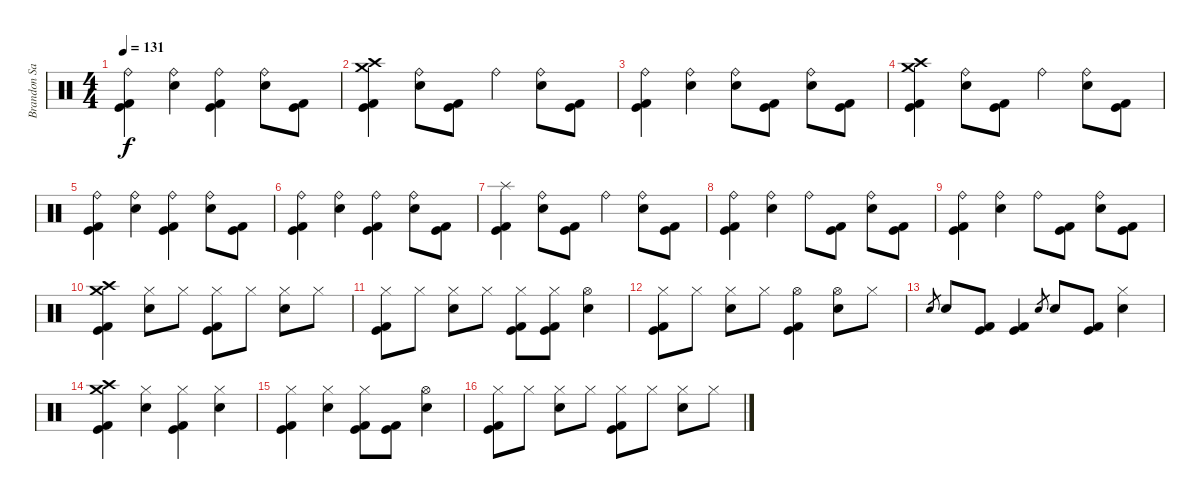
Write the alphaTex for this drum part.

\track ("Brandon Saller" "Brandon Sa") {instrument percussion}
\staff {score}
\articulation defaults
\ts (4 4)
\tempo 131
\clef neutral
\ks c
("Ride (bell)" "Kick (hit) 2" "Kick (hit)").4{dy f} ("Ride (bell)" "Electric Snare (hit)").4 ("Ride (bell)" "Kick (hit) 2" "Kick (hit)").4 ("Ride (bell)" "Electric Snare (hit)").8 ("Kick (hit) 2" "Kick (hit)").8 |
("Crash medium (hit)" "Crash high (hit)" "Kick (hit) 2" "Kick (hit)").4 ("Ride (bell)" "Electric Snare (hit)").8 ("Kick (hit) 2" "Kick (hit)").8 "Ride (bell)".4 ("Ride (bell)" "Electric Snare (hit)").8 ("Kick (hit) 2" "Kick (hit)").8 |
("Ride (bell)" "Kick (hit) 2" "Kick (hit)").4 ("Ride (bell)" "Electric Snare (hit)").4 ("Ride (bell)" "Electric Snare (hit)").8 ("Kick (hit) 2" "Kick (hit)").8 ("Ride (bell)" "Electric Snare (hit)").8 ("Kick (hit) 2" "Kick (hit)").8 |
("Crash medium (hit)" "Crash high (hit)" "Kick (hit) 2" "Kick (hit)").4 ("Ride (bell)" "Electric Snare (hit)").8 ("Kick (hit) 2" "Kick (hit)").8 "Ride (bell)".4 ("Ride (bell)" "Electric Snare (hit)").8 ("Kick (hit) 2" "Kick (hit)").8 |
("Ride (bell)" "Kick (hit) 2" "Kick (hit)").4 ("Ride (bell)" "Electric Snare (hit)").4 ("Ride (bell)" "Kick (hit) 2" "Kick (hit)").4 ("Ride (bell)" "Electric Snare (hit)").8 ("Kick (hit) 2" "Kick (hit)").8 |
("Ride (bell)" "Kick (hit) 2" "Kick (hit)").4 ("Ride (bell)" "Electric Snare (hit)").4 ("Ride (bell)" "Kick (hit) 2" "Kick (hit)").4 ("Ride (bell)" "Electric Snare (hit)").8 ("Kick (hit) 2" "Kick (hit)").8 |
("Splash (hit)" "Kick (hit) 2" "Kick (hit)").4 ("Ride (bell)" "Electric Snare (hit)").8 ("Kick (hit) 2" "Kick (hit)").8 "Ride (bell)".4 ("Ride (bell)" "Electric Snare (hit)").8 ("Kick (hit) 2" "Kick (hit)").8 |
("Ride (bell)" "Kick (hit) 2" "Kick (hit)").4 ("Ride (bell)" "Electric Snare (hit)").4 "Ride (bell)".8 ("Kick (hit) 2" "Kick (hit)").8 ("Ride (bell)" "Electric Snare (hit)").8 ("Kick (hit) 2" "Kick (hit)").8 |
("Ride (bell)" "Kick (hit) 2" "Kick (hit)").4 ("Ride (bell)" "Electric Snare (hit)").4 "Ride (bell)".8 ("Kick (hit) 2" "Kick (hit)").8 ("Ride (bell)" "Electric Snare (hit)").8 ("Kick (hit) 2" "Kick (hit)").8 |
("Crash medium (hit)" "Crash high (hit)" "Kick (hit) 2" "Kick (hit)").4 ("Hi-Hat (closed)" "Electric Snare (hit)").8 "Hi-Hat (closed)".8 ("Hi-Hat (closed)" "Kick (hit)" "Kick (hit) 2").8 "Hi-Hat (closed)".8 ("Hi-Hat (closed)" "Electric Snare (hit)").8 "Hi-Hat (closed)".8 |
("Hi-Hat (closed)" "Kick (hit) 2" "Kick (hit)").8 "Hi-Hat (closed)".8 ("Hi-Hat (closed)" "Electric Snare (hit)").8 "Hi-Hat (closed)".8 ("Hi-Hat (closed)" "Kick (hit) 2" "Kick (hit)").8 ("Hi-Hat (closed)" "Kick (hit) 2" "Kick (hit)").8 ("Hi-Hat (open)" "Electric Snare (hit)").4 |
("Hi-Hat (closed)" "Kick (hit) 2" "Kick (hit)").8 "Hi-Hat (closed)".8 ("Hi-Hat (closed)" "Electric Snare (hit)").8 "Hi-Hat (closed)".8 ("Hi-Hat (open)" "Kick (hit) 2" "Kick (hit)").4 ("Hi-Hat (open)" "Electric Snare (hit)").8 "Hi-Hat (closed)".8 |
"Electric Snare (hit)".8{gr} "Electric Snare (hit)".8 ("Kick (hit) 2" "Kick (hit)").8 ("Kick (hit) 2" "Kick (hit)").4 "Electric Snare (hit)".8{gr} "Electric Snare (hit)".8 ("Kick (hit) 2" "Kick (hit)").8 ("Hi-Hat (closed)" "Electric Snare (hit)").4 |
("Crash medium (hit)" "Crash high (hit)" "Kick (hit) 2" "Kick (hit)").4 ("Hi-Hat (closed)" "Electric Snare (hit)").4 ("Hi-Hat (closed)" "Kick (hit) 2" "Kick (hit)").4 ("Hi-Hat (closed)" "Electric Snare (hit)").4 |
("Hi-Hat (closed)" "Kick (hit) 2" "Kick (hit)").4 ("Hi-Hat (closed)" "Electric Snare (hit)").4 ("Hi-Hat (closed)" "Kick (hit) 2" "Kick (hit)").8 ("Kick (hit) 2" "Kick (hit)").8 ("Hi-Hat (open)" "Electric Snare (hit)").4 |
("Hi-Hat (closed)" "Kick (hit) 2" "Kick (hit)").8 "Hi-Hat (closed)".8 ("Hi-Hat (closed)" "Electric Snare (hit)").8 "Hi-Hat (closed)".8 ("Hi-Hat (closed)" "Kick (hit)" "Kick (hit) 2").8 "Hi-Hat (closed)".8 ("Hi-Hat (closed)" "Electric Snare (hit)").8 "Hi-Hat (closed)".8
